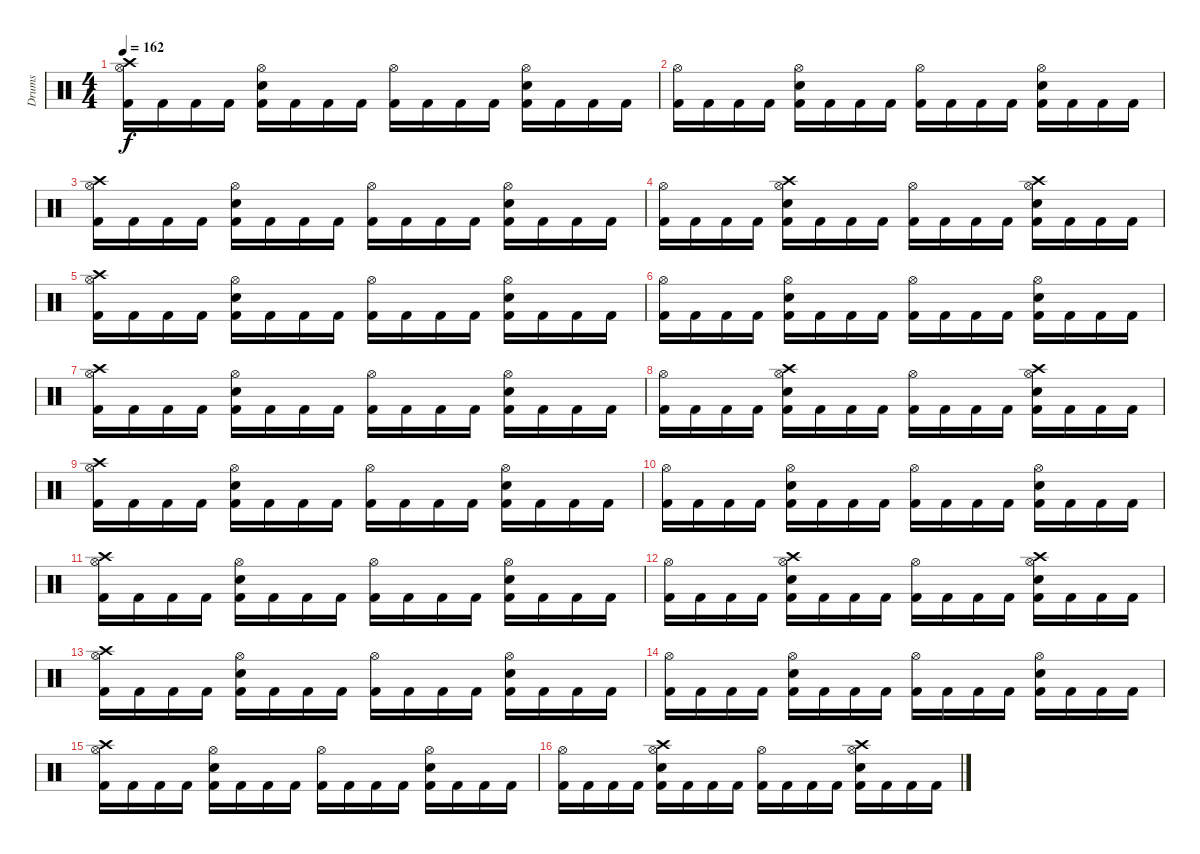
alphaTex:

\track ("Drums" "Drums") {instrument percussion}
\staff {score}
\articulation defaults
\ts (4 4)
\tempo 162
\clef neutral
\ks c
("Hi-Hat (open)" "Kick (hit) 2" "Crash high (hit)").16{dy f} "Kick (hit) 2".16 "Kick (hit) 2".16 "Kick (hit) 2".16 ("Hi-Hat (open)" "Electric Snare (hit)" "Kick (hit) 2").16 "Kick (hit) 2".16 "Kick (hit) 2".16 "Kick (hit) 2".16 ("Hi-Hat (open)" "Kick (hit) 2").16 "Kick (hit) 2".16 "Kick (hit) 2".16 "Kick (hit) 2".16 ("Hi-Hat (open)" "Electric Snare (hit)" "Kick (hit) 2").16 "Kick (hit) 2".16 "Kick (hit) 2".16 "Kick (hit) 2".16 |
("Hi-Hat (open)" "Kick (hit) 2").16 "Kick (hit) 2".16 "Kick (hit) 2".16 "Kick (hit) 2".16 ("Hi-Hat (open)" "Electric Snare (hit)" "Kick (hit) 2").16 "Kick (hit) 2".16 "Kick (hit) 2".16 "Kick (hit) 2".16 ("Hi-Hat (open)" "Kick (hit) 2").16 "Kick (hit) 2".16 "Kick (hit) 2".16 "Kick (hit) 2".16 ("Hi-Hat (open)" "Electric Snare (hit)" "Kick (hit) 2").16 "Kick (hit) 2".16 "Kick (hit) 2".16 "Kick (hit) 2".16 |
("Hi-Hat (open)" "Kick (hit) 2" "Crash high (hit)").16 "Kick (hit) 2".16 "Kick (hit) 2".16 "Kick (hit) 2".16 ("Hi-Hat (open)" "Electric Snare (hit)" "Kick (hit) 2").16 "Kick (hit) 2".16 "Kick (hit) 2".16 "Kick (hit) 2".16 ("Hi-Hat (open)" "Kick (hit) 2").16 "Kick (hit) 2".16 "Kick (hit) 2".16 "Kick (hit) 2".16 ("Hi-Hat (open)" "Electric Snare (hit)" "Kick (hit) 2").16 "Kick (hit) 2".16 "Kick (hit) 2".16 "Kick (hit) 2".16 |
("Hi-Hat (open)" "Kick (hit) 2").16 "Kick (hit) 2".16 "Kick (hit) 2".16 "Kick (hit) 2".16 ("Crash high (hit)" "Hi-Hat (open)" "Electric Snare (hit)" "Kick (hit) 2").16 "Kick (hit) 2".16 "Kick (hit) 2".16 "Kick (hit) 2".16 ("Hi-Hat (open)" "Kick (hit) 2").16 "Kick (hit) 2".16 "Kick (hit) 2".16 "Kick (hit) 2".16 ("Crash high (hit)" "Hi-Hat (open)" "Electric Snare (hit)" "Kick (hit) 2").16 "Kick (hit) 2".16 "Kick (hit) 2".16 "Kick (hit) 2".16 |
("Hi-Hat (open)" "Kick (hit) 2" "Crash high (hit)").16 "Kick (hit) 2".16 "Kick (hit) 2".16 "Kick (hit) 2".16 ("Hi-Hat (open)" "Electric Snare (hit)" "Kick (hit) 2").16 "Kick (hit) 2".16 "Kick (hit) 2".16 "Kick (hit) 2".16 ("Hi-Hat (open)" "Kick (hit) 2").16 "Kick (hit) 2".16 "Kick (hit) 2".16 "Kick (hit) 2".16 ("Hi-Hat (open)" "Electric Snare (hit)" "Kick (hit) 2").16 "Kick (hit) 2".16 "Kick (hit) 2".16 "Kick (hit) 2".16 |
("Hi-Hat (open)" "Kick (hit) 2").16 "Kick (hit) 2".16 "Kick (hit) 2".16 "Kick (hit) 2".16 ("Hi-Hat (open)" "Electric Snare (hit)" "Kick (hit) 2").16 "Kick (hit) 2".16 "Kick (hit) 2".16 "Kick (hit) 2".16 ("Hi-Hat (open)" "Kick (hit) 2").16 "Kick (hit) 2".16 "Kick (hit) 2".16 "Kick (hit) 2".16 ("Hi-Hat (open)" "Electric Snare (hit)" "Kick (hit) 2").16 "Kick (hit) 2".16 "Kick (hit) 2".16 "Kick (hit) 2".16 |
("Hi-Hat (open)" "Kick (hit) 2" "Crash high (hit)").16 "Kick (hit) 2".16 "Kick (hit) 2".16 "Kick (hit) 2".16 ("Hi-Hat (open)" "Electric Snare (hit)" "Kick (hit) 2").16 "Kick (hit) 2".16 "Kick (hit) 2".16 "Kick (hit) 2".16 ("Hi-Hat (open)" "Kick (hit) 2").16 "Kick (hit) 2".16 "Kick (hit) 2".16 "Kick (hit) 2".16 ("Hi-Hat (open)" "Electric Snare (hit)" "Kick (hit) 2").16 "Kick (hit) 2".16 "Kick (hit) 2".16 "Kick (hit) 2".16 |
("Hi-Hat (open)" "Kick (hit) 2").16 "Kick (hit) 2".16 "Kick (hit) 2".16 "Kick (hit) 2".16 ("Crash high (hit)" "Hi-Hat (open)" "Electric Snare (hit)" "Kick (hit) 2").16 "Kick (hit) 2".16 "Kick (hit) 2".16 "Kick (hit) 2".16 ("Hi-Hat (open)" "Kick (hit) 2").16 "Kick (hit) 2".16 "Kick (hit) 2".16 "Kick (hit) 2".16 ("Crash high (hit)" "Hi-Hat (open)" "Electric Snare (hit)" "Kick (hit) 2").16 "Kick (hit) 2".16 "Kick (hit) 2".16 "Kick (hit) 2".16 |
("Hi-Hat (open)" "Kick (hit) 2" "Crash high (hit)").16 "Kick (hit) 2".16 "Kick (hit) 2".16 "Kick (hit) 2".16 ("Hi-Hat (open)" "Electric Snare (hit)" "Kick (hit) 2").16 "Kick (hit) 2".16 "Kick (hit) 2".16 "Kick (hit) 2".16 ("Hi-Hat (open)" "Kick (hit) 2").16 "Kick (hit) 2".16 "Kick (hit) 2".16 "Kick (hit) 2".16 ("Hi-Hat (open)" "Electric Snare (hit)" "Kick (hit) 2").16 "Kick (hit) 2".16 "Kick (hit) 2".16 "Kick (hit) 2".16 |
("Hi-Hat (open)" "Kick (hit) 2").16 "Kick (hit) 2".16 "Kick (hit) 2".16 "Kick (hit) 2".16 ("Hi-Hat (open)" "Electric Snare (hit)" "Kick (hit) 2").16 "Kick (hit) 2".16 "Kick (hit) 2".16 "Kick (hit) 2".16 ("Hi-Hat (open)" "Kick (hit) 2").16 "Kick (hit) 2".16 "Kick (hit) 2".16 "Kick (hit) 2".16 ("Hi-Hat (open)" "Electric Snare (hit)" "Kick (hit) 2").16 "Kick (hit) 2".16 "Kick (hit) 2".16 "Kick (hit) 2".16 |
("Hi-Hat (open)" "Kick (hit) 2" "Crash high (hit)").16 "Kick (hit) 2".16 "Kick (hit) 2".16 "Kick (hit) 2".16 ("Hi-Hat (open)" "Electric Snare (hit)" "Kick (hit) 2").16 "Kick (hit) 2".16 "Kick (hit) 2".16 "Kick (hit) 2".16 ("Hi-Hat (open)" "Kick (hit) 2").16 "Kick (hit) 2".16 "Kick (hit) 2".16 "Kick (hit) 2".16 ("Hi-Hat (open)" "Electric Snare (hit)" "Kick (hit) 2").16 "Kick (hit) 2".16 "Kick (hit) 2".16 "Kick (hit) 2".16 |
("Hi-Hat (open)" "Kick (hit) 2").16 "Kick (hit) 2".16 "Kick (hit) 2".16 "Kick (hit) 2".16 ("Crash high (hit)" "Hi-Hat (open)" "Electric Snare (hit)" "Kick (hit) 2").16 "Kick (hit) 2".16 "Kick (hit) 2".16 "Kick (hit) 2".16 ("Hi-Hat (open)" "Kick (hit) 2").16 "Kick (hit) 2".16 "Kick (hit) 2".16 "Kick (hit) 2".16 ("Crash high (hit)" "Hi-Hat (open)" "Electric Snare (hit)" "Kick (hit) 2").16 "Kick (hit) 2".16 "Kick (hit) 2".16 "Kick (hit) 2".16 |
("Hi-Hat (open)" "Kick (hit) 2" "Crash high (hit)").16 "Kick (hit) 2".16 "Kick (hit) 2".16 "Kick (hit) 2".16 ("Hi-Hat (open)" "Electric Snare (hit)" "Kick (hit) 2").16 "Kick (hit) 2".16 "Kick (hit) 2".16 "Kick (hit) 2".16 ("Hi-Hat (open)" "Kick (hit) 2").16 "Kick (hit) 2".16 "Kick (hit) 2".16 "Kick (hit) 2".16 ("Hi-Hat (open)" "Electric Snare (hit)" "Kick (hit) 2").16 "Kick (hit) 2".16 "Kick (hit) 2".16 "Kick (hit) 2".16 |
("Hi-Hat (open)" "Kick (hit) 2").16 "Kick (hit) 2".16 "Kick (hit) 2".16 "Kick (hit) 2".16 ("Hi-Hat (open)" "Electric Snare (hit)" "Kick (hit) 2").16 "Kick (hit) 2".16 "Kick (hit) 2".16 "Kick (hit) 2".16 ("Hi-Hat (open)" "Kick (hit) 2").16 "Kick (hit) 2".16 "Kick (hit) 2".16 "Kick (hit) 2".16 ("Hi-Hat (open)" "Electric Snare (hit)" "Kick (hit) 2").16 "Kick (hit) 2".16 "Kick (hit) 2".16 "Kick (hit) 2".16 |
("Hi-Hat (open)" "Kick (hit) 2" "Crash high (hit)").16 "Kick (hit) 2".16 "Kick (hit) 2".16 "Kick (hit) 2".16 ("Hi-Hat (open)" "Electric Snare (hit)" "Kick (hit) 2").16 "Kick (hit) 2".16 "Kick (hit) 2".16 "Kick (hit) 2".16 ("Hi-Hat (open)" "Kick (hit) 2").16 "Kick (hit) 2".16 "Kick (hit) 2".16 "Kick (hit) 2".16 ("Hi-Hat (open)" "Electric Snare (hit)" "Kick (hit) 2").16 "Kick (hit) 2".16 "Kick (hit) 2".16 "Kick (hit) 2".16 |
("Hi-Hat (open)" "Kick (hit) 2").16 "Kick (hit) 2".16 "Kick (hit) 2".16 "Kick (hit) 2".16 ("Crash high (hit)" "Hi-Hat (open)" "Electric Snare (hit)" "Kick (hit) 2").16 "Kick (hit) 2".16 "Kick (hit) 2".16 "Kick (hit) 2".16 ("Hi-Hat (open)" "Kick (hit) 2").16 "Kick (hit) 2".16 "Kick (hit) 2".16 "Kick (hit) 2".16 ("Crash high (hit)" "Hi-Hat (open)" "Electric Snare (hit)" "Kick (hit) 2").16 "Kick (hit) 2".16 "Kick (hit) 2".16 "Kick (hit) 2".16
